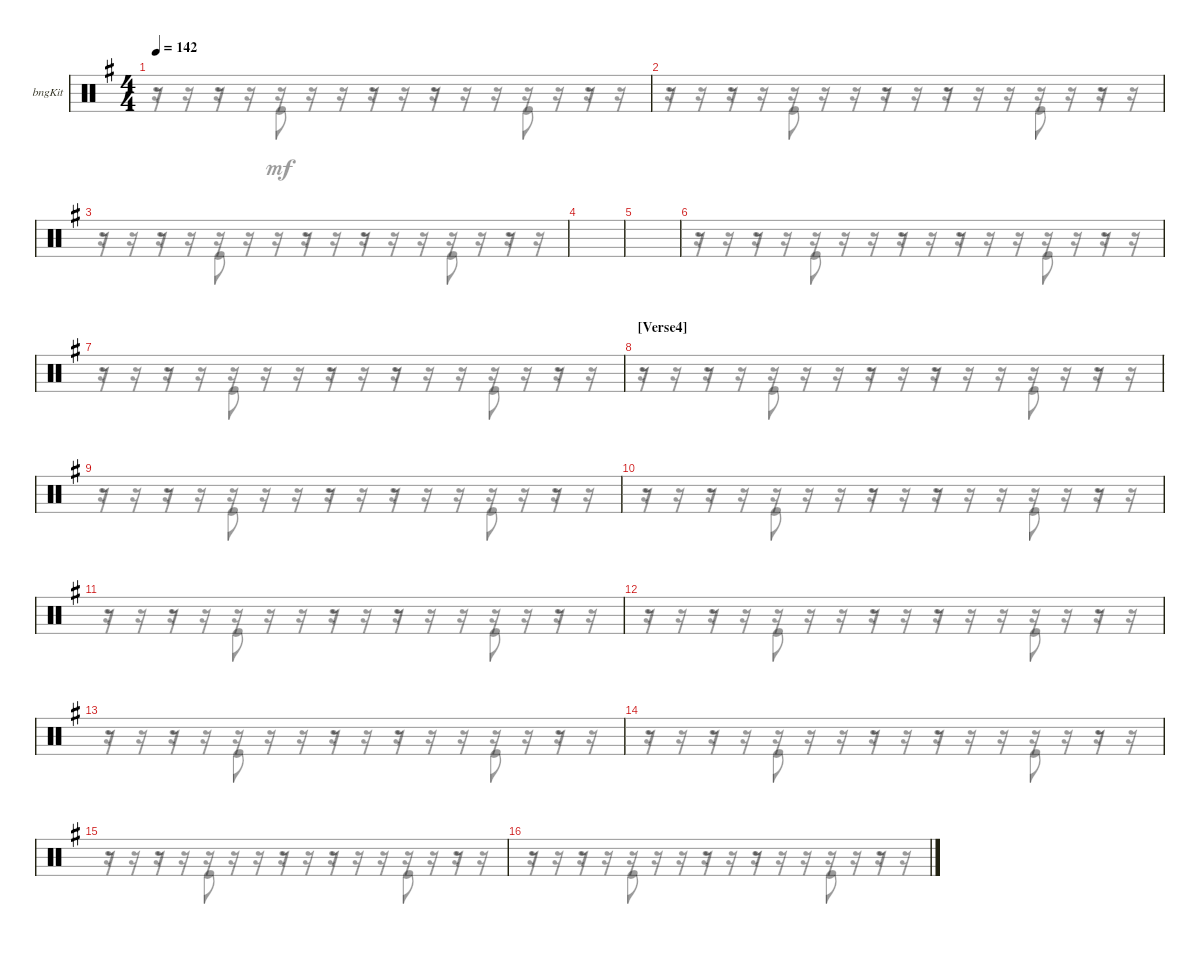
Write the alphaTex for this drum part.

\bracketExtendMode groupsimilarinstruments
\firstSystemTrackNameOrientation horizontal
\otherSystemsTrackNameOrientation horizontal
\track ("Bongos" "bngKit") {instrument percussion}
\staff {score}
\articulation defaults
\voice
\ts (4 4)
\tempo 142
\clef neutral
\ks eminor
|
|
|
|
|
|
|
\section ("" "[Verse4] ")
|
|
|
|
|
|
|
|
\voice
\clef neutral
\ks eminor
r.16{dy mf} r.16 r.16 r.16 r.16 r.16 r.16 r.16 r.16 r.16 r.16 r.16 r.16 r.16 r.16 r.16 |
r.16 r.16 r.16 r.16 r.16 r.16 r.16 r.16 r.16 r.16 r.16 r.16 r.16 r.16 r.16 r.16 |
r.16 r.16 r.16 r.16 r.16 r.16 r.16 r.16 r.16 r.16 r.16 r.16 r.16 r.16 r.16 r.16 |
|
|
r.16 r.16 r.16 r.16 r.16 r.16 r.16 r.16 r.16 r.16 r.16 r.16 r.16 r.16 r.16 r.16 |
r.16 r.16 r.16 r.16 r.16 r.16 r.16 r.16 r.16 r.16 r.16 r.16 r.16 r.16 r.16 r.16 |
r.16 r.16 r.16 r.16 r.16 r.16 r.16 r.16 r.16 r.16 r.16 r.16 r.16 r.16 r.16 r.16 |
r.16 r.16 r.16 r.16 r.16 r.16 r.16 r.16 r.16 r.16 r.16 r.16 r.16 r.16 r.16 r.16 |
r.16 r.16 r.16 r.16 r.16 r.16 r.16 r.16 r.16 r.16 r.16 r.16 r.16 r.16 r.16 r.16 |
r.16 r.16 r.16 r.16 r.16 r.16 r.16 r.16 r.16 r.16 r.16 r.16 r.16 r.16 r.16 r.16 |
r.16 r.16 r.16 r.16 r.16 r.16 r.16 r.16 r.16 r.16 r.16 r.16 r.16 r.16 r.16 r.16 |
r.16 r.16 r.16 r.16 r.16 r.16 r.16 r.16 r.16 r.16 r.16 r.16 r.16 r.16 r.16 r.16 |
r.16 r.16 r.16 r.16 r.16 r.16 r.16 r.16 r.16 r.16 r.16 r.16 r.16 r.16 r.16 r.16 |
r.16 r.16 r.16 r.16 r.16 r.16 r.16 r.16 r.16 r.16 r.16 r.16 r.16 r.16 r.16 r.16 |
r.16 r.16 r.16 r.16 r.16 r.16 r.16 r.16 r.16 r.16 r.16 r.16 r.16 r.16 r.16 r.16
\voice
\clef neutral
\ottava regular
\simile none
\ks eminor
r.16{dy mf} r.16 r.16 r.16 r.16 r.16 r.16 r.16 r.16 r.16 r.16 r.16 r.16 r.16 r.16 r.16 |
r.16 r.16 r.16 r.16 r.16 r.16 r.16 r.16 r.16 r.16 r.16 r.16 r.16 r.16 r.16 r.16 |
r.16 r.16 r.16 r.16 r.16 r.16 r.16 r.16 r.16 r.16 r.16 r.16 r.16 r.16 r.16 r.16 |
|
|
r.16 r.16 r.16 r.16 r.16 r.16 r.16 r.16 r.16 r.16 r.16 r.16 r.16 r.16 r.16 r.16 |
r.16 r.16 r.16 r.16 r.16 r.16 r.16 r.16 r.16 r.16 r.16 r.16 r.16 r.16 r.16 r.16 |
r.16 r.16 r.16 r.16 r.16 r.16 r.16 r.16 r.16 r.16 r.16 r.16 r.16 r.16 r.16 r.16 |
r.16 r.16 r.16 r.16 r.16 r.16 r.16 r.16 r.16 r.16 r.16 r.16 r.16 r.16 r.16 r.16 |
r.16 r.16 r.16 r.16 r.16 r.16 r.16 r.16 r.16 r.16 r.16 r.16 r.16 r.16 r.16 r.16 |
r.16 r.16 r.16 r.16 r.16 r.16 r.16 r.16 r.16 r.16 r.16 r.16 r.16 r.16 r.16 r.16 |
r.16 r.16 r.16 r.16 r.16 r.16 r.16 r.16 r.16 r.16 r.16 r.16 r.16 r.16 r.16 r.16 |
r.16 r.16 r.16 r.16 r.16 r.16 r.16 r.16 r.16 r.16 r.16 r.16 r.16 r.16 r.16 r.16 |
r.16 r.16 r.16 r.16 r.16 r.16 r.16 r.16 r.16 r.16 r.16 r.16 r.16 r.16 r.16 r.16 |
r.16 r.16 r.16 r.16 r.16 r.16 r.16 r.16 r.16 r.16 r.16 r.16 r.16 r.16 r.16 r.16 |
r.16 r.16 r.16 r.16 r.16 r.16 r.16 r.16 r.16 r.16 r.16 r.16 r.16 r.16 r.16 r.16
\voice
\clef neutral
\ottava regular
\simile none
\ks eminor
r.8{dy mf} r.8 "Kick (hit)".8 r.16 r.8 r.8 r.16 "Kick (hit)".8 r.8 |
r.8 r.8 "Kick (hit)".8 r.16 r.8 r.8 r.16 "Kick (hit)".8 r.8 |
r.8 r.8 "Kick (hit)".8 r.16 r.8 r.8 r.16 "Kick (hit)".8 r.8 |
|
|
r.8 r.8 "Kick (hit)".8 r.16 r.8 r.8 r.16 "Kick (hit)".8 r.8 |
r.8 r.8 "Kick (hit)".8 r.16 r.8 r.8 r.16 "Kick (hit)".8 r.8 |
r.8 r.8 "Kick (hit)".8 r.16 r.8 r.8 r.16 "Kick (hit)".8 r.8 |
r.8 r.8 "Kick (hit)".8 r.16 r.8 r.8 r.16 "Kick (hit)".8 r.8 |
r.8 r.8 "Kick (hit)".8 r.16 r.8 r.8 r.16 "Kick (hit)".8 r.8 |
r.8 r.8 "Kick (hit)".8 r.16 r.8 r.8 r.16 "Kick (hit)".8 r.8 |
r.8 r.8 "Kick (hit)".8 r.16 r.8 r.8 r.16 "Kick (hit)".8 r.8 |
r.8 r.8 "Kick (hit)".8 r.16 r.8 r.8 r.16 "Kick (hit)".8 r.8 |
r.8 r.8 "Kick (hit)".8 r.16 r.8 r.8 r.16 "Kick (hit)".8 r.8 |
r.8 r.8 "Kick (hit)".8 r.16 r.8 r.8 r.16 "Kick (hit)".8 r.8 |
r.8 r.8 "Kick (hit)".8 r.16 r.8 r.8 r.16 "Kick (hit)".8 r.8
